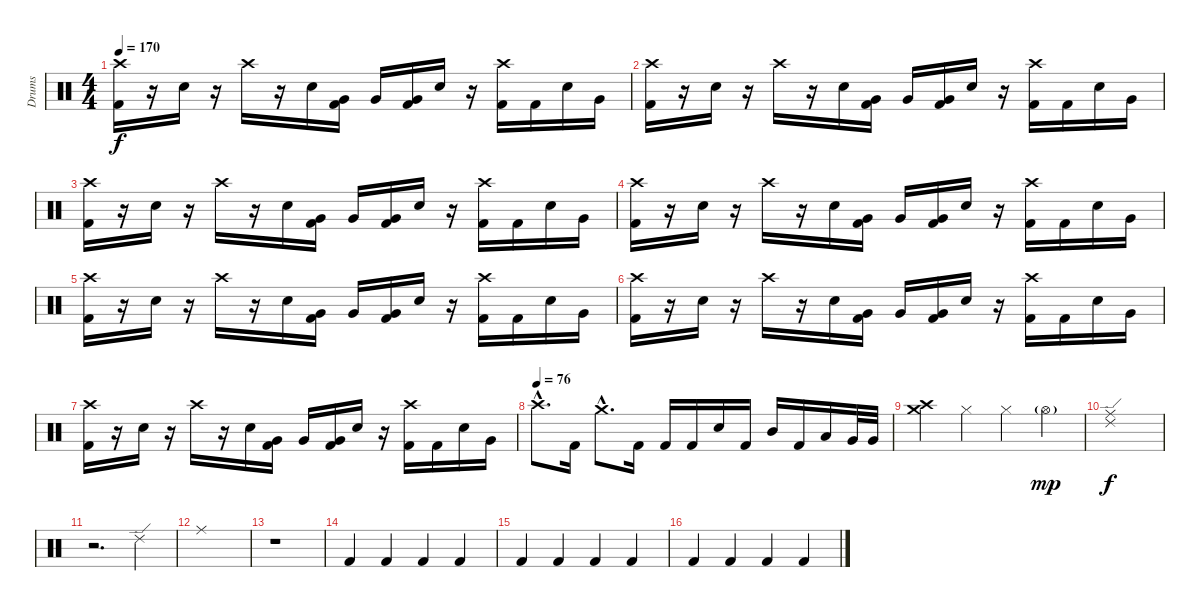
\track ("Drums" "Drums") {instrument percussion}
\staff {score}
\articulation defaults
\ts (4 4)
\tempo 170
\clef neutral
\ks c
("Crash high (hit)" "Kick (hit) 2").16{dy f} r.16 "Electric Snare (hit)".16 r.16 "Crash high (hit)".16 r.16 "Electric Snare (hit)".16 ("Very Low Tom (hit)" "Kick (hit) 2").16 "Very Low Tom (hit)".16 ("Very Low Tom (hit)" "Kick (hit) 2").16 "Electric Snare (hit)".16 r.16 ("Crash high (hit)" "Kick (hit) 2").16 "Kick (hit) 2".16 "Electric Snare (hit)".16 "Very Low Tom (hit)".16 |
("Crash high (hit)" "Kick (hit) 2").16 r.16 "Electric Snare (hit)".16 r.16 "Crash high (hit)".16 r.16 "Electric Snare (hit)".16 ("Very Low Tom (hit)" "Kick (hit) 2").16 "Very Low Tom (hit)".16 ("Very Low Tom (hit)" "Kick (hit) 2").16 "Electric Snare (hit)".16 r.16 ("Crash high (hit)" "Kick (hit) 2").16 "Kick (hit) 2".16 "Electric Snare (hit)".16 "Very Low Tom (hit)".16 |
("Crash high (hit)" "Kick (hit) 2").16 r.16 "Electric Snare (hit)".16 r.16 "Crash high (hit)".16 r.16 "Electric Snare (hit)".16 ("Very Low Tom (hit)" "Kick (hit) 2").16 "Very Low Tom (hit)".16 ("Very Low Tom (hit)" "Kick (hit) 2").16 "Electric Snare (hit)".16 r.16 ("Crash high (hit)" "Kick (hit) 2").16 "Kick (hit) 2".16 "Electric Snare (hit)".16 "Very Low Tom (hit)".16 |
("Crash high (hit)" "Kick (hit) 2").16 r.16 "Electric Snare (hit)".16 r.16 "Crash high (hit)".16 r.16 "Electric Snare (hit)".16 ("Very Low Tom (hit)" "Kick (hit) 2").16 "Very Low Tom (hit)".16 ("Very Low Tom (hit)" "Kick (hit) 2").16 "Electric Snare (hit)".16 r.16 ("Crash high (hit)" "Kick (hit) 2").16 "Kick (hit) 2".16 "Electric Snare (hit)".16 "Very Low Tom (hit)".16 |
("Crash high (hit)" "Kick (hit) 2").16 r.16 "Electric Snare (hit)".16 r.16 "Crash high (hit)".16 r.16 "Electric Snare (hit)".16 ("Very Low Tom (hit)" "Kick (hit) 2").16 "Very Low Tom (hit)".16 ("Very Low Tom (hit)" "Kick (hit) 2").16 "Electric Snare (hit)".16 r.16 ("Crash high (hit)" "Kick (hit) 2").16 "Kick (hit) 2".16 "Electric Snare (hit)".16 "Very Low Tom (hit)".16 |
("Crash high (hit)" "Kick (hit) 2").16 r.16 "Electric Snare (hit)".16 r.16 "Crash high (hit)".16 r.16 "Electric Snare (hit)".16 ("Very Low Tom (hit)" "Kick (hit) 2").16 "Very Low Tom (hit)".16 ("Very Low Tom (hit)" "Kick (hit) 2").16 "Electric Snare (hit)".16 r.16 ("Crash high (hit)" "Kick (hit) 2").16 "Kick (hit) 2".16 "Electric Snare (hit)".16 "Very Low Tom (hit)".16 |
("Crash high (hit)" "Kick (hit) 2").16 r.16 "Electric Snare (hit)".16 r.16 "Crash high (hit)".16 r.16 "Electric Snare (hit)".16 ("Very Low Tom (hit)" "Kick (hit) 2").16 "Very Low Tom (hit)".16 ("Very Low Tom (hit)" "Kick (hit) 2").16 "Electric Snare (hit)".16 r.16 ("Crash high (hit)" "Kick (hit) 2").16 "Kick (hit) 2".16 "Electric Snare (hit)".16 "Very Low Tom (hit)".16 |
\tempo (76)
"Crash high (hit)"{hac}.8{d} "Kick (hit) 2".16 "Crash medium (hit)"{hac}.8{d} "Kick (hit) 2".16 "Kick (hit) 2".16 "Kick (hit) 2".16 "Electric Snare (hit)".16 "Kick (hit) 2".16 "Mid Tom (hit)".16 "Kick (hit) 2".16 "Low Tom (hit)".16 "Very Low Tom (hit)".32 "Very Low Tom (hit)".32 |
("Crash high (hit)" "Crash medium (hit)").4 "Hi-Hat (closed)".4 "Hi-Hat (closed)".4 "Hi-Hat (open)"{g}.4{dy mp} |
("Ride (middle)" "Ride (edge) 2").1{dy f} |
r.2{d} "Ride (edge) 2".4 |
"Ride (middle)".1 |
r.1 |
"Kick (hit) 2".4 "Kick (hit) 2".4 "Kick (hit) 2".4 "Kick (hit) 2".4 |
"Kick (hit) 2".4 "Kick (hit) 2".4 "Kick (hit) 2".4 "Kick (hit) 2".4 |
"Kick (hit) 2".4 "Kick (hit) 2".4 "Kick (hit) 2".4 "Kick (hit) 2".4
